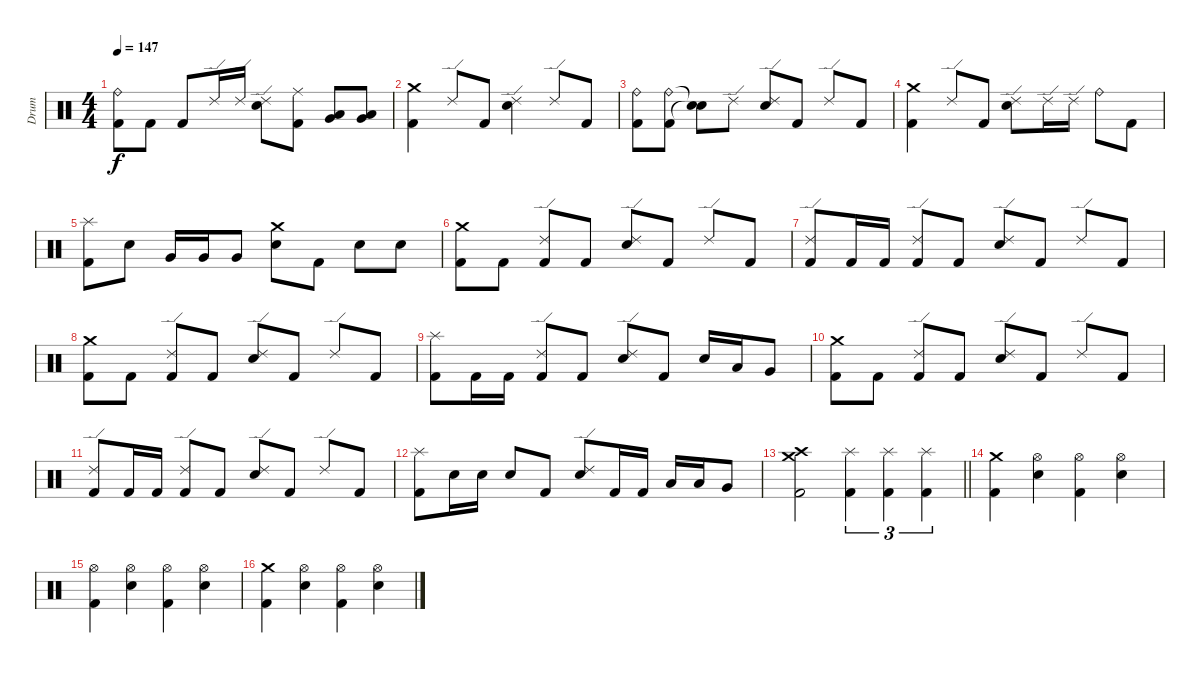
\track ("Drum" "Drum") {instrument percussion}
\staff {score}
\articulation defaults
\ts (4 4)
\tempo 147
\clef neutral
\ks c
("Ride (bell)" "Kick (hit) 2").8{dy f} "Kick (hit) 2".8 "Kick (hit) 2".8 "Ride (edge) 2".16 "Ride (edge) 2".16 ("Ride (edge) 2" "Electric Snare (hit)").8 ("Ride (middle)" "Kick (hit) 2").8 ("Low Tom (hit)" "Very Low Tom (hit)").8 ("Very Low Tom (hit)" "Low Floor Tom (hit)").8 |
("Crash medium (hit)" "Kick (hit) 2").4 "Ride (edge) 2".8 "Kick (hit) 2".8 ("Ride (edge) 2" "Electric Snare (hit)").4 "Ride (edge) 2".8 "Kick (hit) 2".8 |
("Ride (bell)" "Kick (hit) 2").8 ("Ride (bell)" "Kick (hit) 2").8 ("Snare (hit)"{t} "Snare (hit)"{t}).8 "Ride (edge) 2".8 ("Ride (edge) 2" "Electric Snare (hit)").8 "Kick (hit) 2".8 "Ride (edge) 2".8 "Kick (hit) 2".8 |
("Crash medium (hit)" "Kick (hit) 2").4 "Ride (edge) 2".8 "Kick (hit) 2".8 ("Ride (edge) 2" "Electric Snare (hit)").8 "Ride (edge) 2".16 "Ride (edge) 2".16 "Ride (bell)".8 "Kick (hit) 2".8 |
("Splash (hit)" "Kick (hit) 2").8 "Electric Snare (hit)".8 "Very Low Tom (hit)".16 "Very Low Tom (hit)".16 "Very Low Tom (hit)".8 ("Crash medium (hit)" "Electric Snare (hit)").8 "Kick (hit) 2".8 "Electric Snare (hit)".8 "Electric Snare (hit)".8 |
("Crash medium (hit)" "Kick (hit) 2").8 "Kick (hit) 2".8 ("Ride (edge) 2" "Kick (hit) 2").8 "Kick (hit) 2".8 ("Ride (edge) 2" "Electric Snare (hit)").8 "Kick (hit) 2".8 "Ride (edge) 2".8 "Kick (hit) 2".8 |
("Ride (edge) 2" "Kick (hit) 2").8 "Kick (hit) 2".16 "Kick (hit) 2".16 ("Ride (edge) 2" "Kick (hit) 2").8 "Kick (hit) 2".8 ("Ride (edge) 2" "Electric Snare (hit)").8 "Kick (hit) 2".8 "Ride (edge) 2".8 "Kick (hit) 2".8 |
("Crash medium (hit)" "Kick (hit) 2").8 "Kick (hit) 2".8 ("Ride (edge) 2" "Kick (hit) 2").8 "Kick (hit) 2".8 ("Ride (edge) 2" "Electric Snare (hit)").8 "Kick (hit) 2".8 "Ride (edge) 2".8 "Kick (hit) 2".8 |
("Splash (hit)" "Kick (hit) 2").8 "Kick (hit) 2".16 "Kick (hit) 2".16 ("Ride (edge) 2" "Kick (hit) 2").8 "Kick (hit) 2".8 ("Ride (edge) 2" "Electric Snare (hit)").8 "Kick (hit) 2".8 "Electric Snare (hit)".16 "Low Tom (hit)".16 "Very Low Tom (hit)".8 |
("Crash medium (hit)" "Kick (hit) 2").8 "Kick (hit) 2".8 ("Ride (edge) 2" "Kick (hit) 2").8 "Kick (hit) 2".8 ("Ride (edge) 2" "Electric Snare (hit)").8 "Kick (hit) 2".8 "Ride (edge) 2".8 "Kick (hit) 2".8 |
("Ride (edge) 2" "Kick (hit) 2").8 "Kick (hit) 2".16 "Kick (hit) 2".16 ("Ride (edge) 2" "Kick (hit) 2").8 "Kick (hit) 2".8 ("Ride (edge) 2" "Electric Snare (hit)").8 "Kick (hit) 2".8 "Ride (edge) 2".8 "Kick (hit) 2".8 |
("Splash (hit)" "Kick (hit) 2").8 "Electric Snare (hit)".16 "Electric Snare (hit)".16 "Electric Snare (hit)".8 "Kick (hit) 2".8 ("Ride (edge) 2" "Electric Snare (hit)").8 "Kick (hit) 2".16 "Kick (hit) 2".16 "Low Tom (hit)".16 "Low Tom (hit)".16 "Very Low Tom (hit)".8 |
\barLineRight lightlight
("Crash high (hit)" "Crash medium (hit)" "Kick (hit) 2").2 ("Splash (hit)" "Kick (hit) 2").4{tu (3 2)} ("Splash (hit)" "Kick (hit) 2").4{tu (3 2)} ("Splash (hit)" "Kick (hit) 2").4{tu (3 2)} |
\section ("" "")
("Crash medium (hit)" "Kick (hit) 2").4 ("Hi-Hat (open)" "Electric Snare (hit)").4 ("Hi-Hat (open)" "Kick (hit) 2").4 ("Hi-Hat (open)" "Electric Snare (hit)").4 |
("Hi-Hat (open)" "Kick (hit) 2").4 ("Hi-Hat (open)" "Electric Snare (hit)").4 ("Hi-Hat (open)" "Kick (hit) 2").4 ("Hi-Hat (open)" "Electric Snare (hit)").4 |
("Crash medium (hit)" "Kick (hit) 2").4 ("Hi-Hat (open)" "Electric Snare (hit)").4 ("Hi-Hat (open)" "Kick (hit) 2").4 ("Hi-Hat (open)" "Electric Snare (hit)").4
